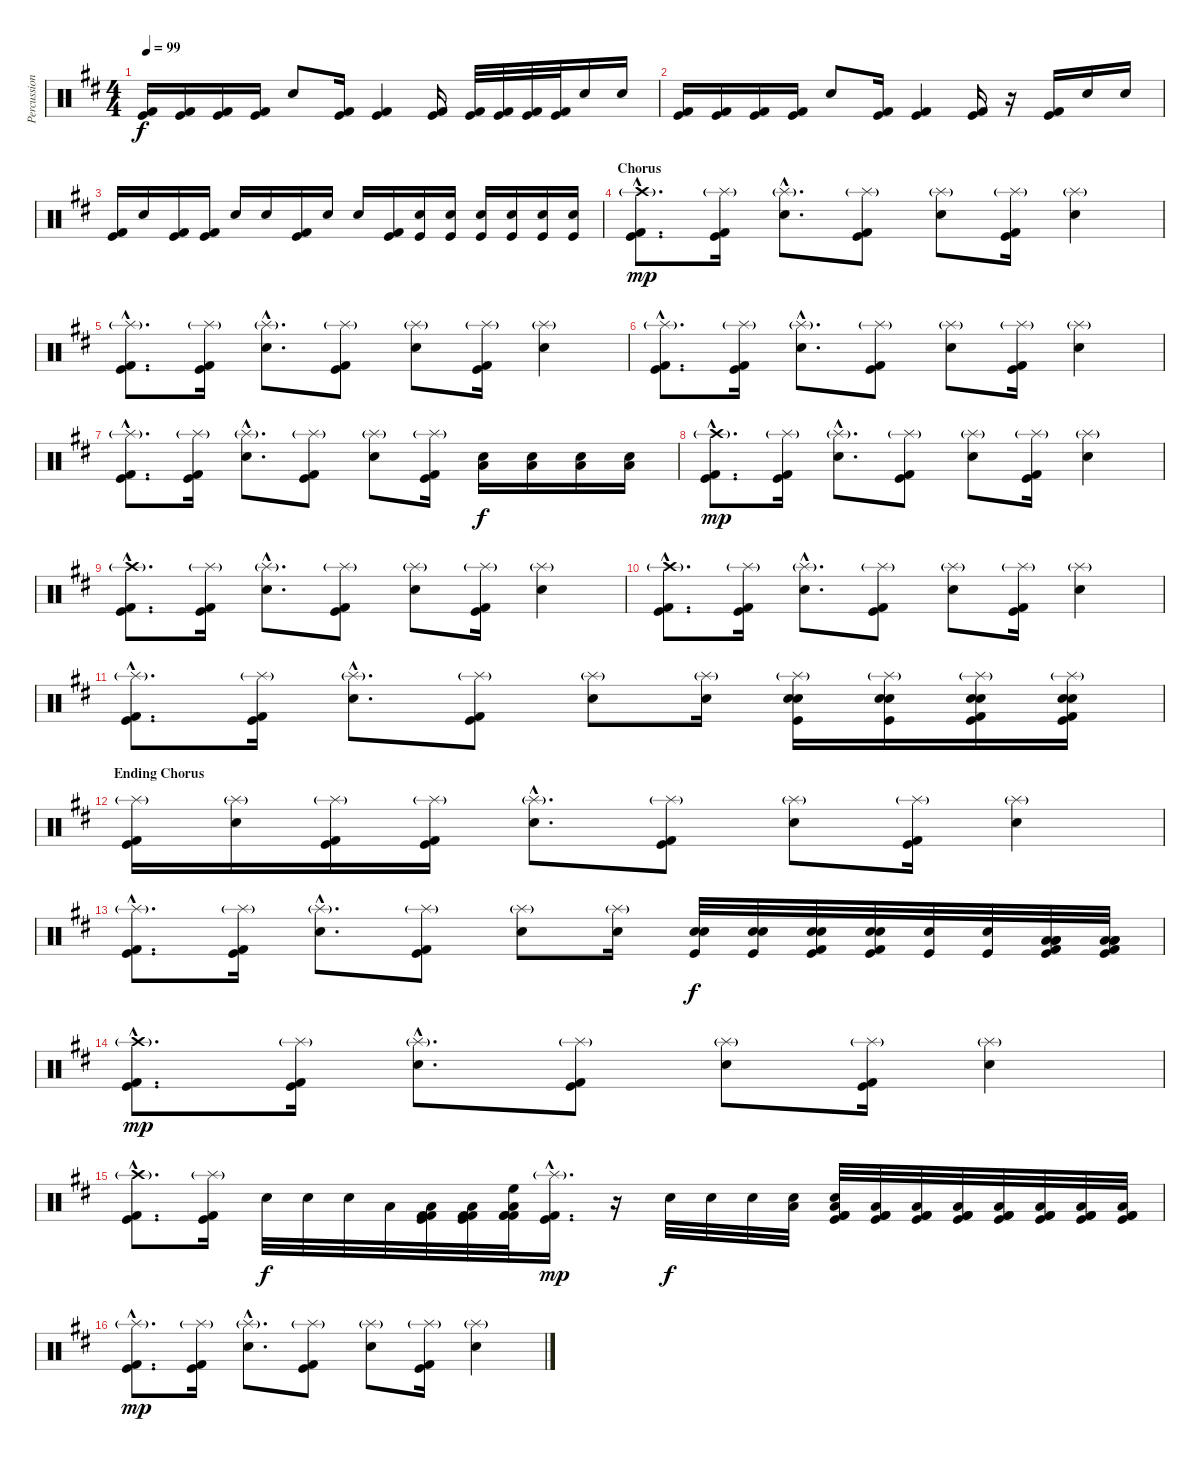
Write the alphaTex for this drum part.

\track ("Percussion" "Percussion") {instrument percussion}
\staff {score}
\articulation defaults
\ts (4 4)
\tempo 99
\clef neutral
\ks d
("Kick (hit)" "Kick (hit) 2").16{dy f} ("Kick (hit)" "Kick (hit) 2").16 ("Kick (hit)" "Kick (hit) 2").16 ("Kick (hit)" "Kick (hit) 2").16 "Electric Snare (hit)".8 ("Kick (hit)" "Kick (hit) 2").16 ("Kick (hit)" "Kick (hit) 2").4 ("Kick (hit)" "Kick (hit) 2").16 ("Kick (hit)" "Kick (hit) 2").32 ("Kick (hit)" "Kick (hit) 2").32 ("Kick (hit)" "Kick (hit) 2").32 ("Kick (hit) 2" "Kick (hit)").32 "Electric Snare (hit)".16 "Electric Snare (hit)".16 |
("Kick (hit)" "Kick (hit) 2").16 ("Kick (hit)" "Kick (hit) 2").16 ("Kick (hit)" "Kick (hit) 2").16 ("Kick (hit)" "Kick (hit) 2").16 "Electric Snare (hit)".8 ("Kick (hit)" "Kick (hit) 2").16 ("Kick (hit)" "Kick (hit) 2").4 ("Kick (hit)" "Kick (hit) 2").16 r.16 ("Kick (hit) 2" "Kick (hit)").16 "Electric Snare (hit)".16 "Electric Snare (hit)".16 |
("Kick (hit)" "Kick (hit) 2").16 "Electric Snare (hit)".16 ("Kick (hit)" "Kick (hit) 2").16 ("Kick (hit)" "Kick (hit) 2").16 "Electric Snare (hit)".16 "Electric Snare (hit)".16 ("Kick (hit)" "Kick (hit) 2").16 "Electric Snare (hit)".16 "Electric Snare (hit)".16 ("Kick (hit)" "Kick (hit) 2").16 ("Electric Snare (hit)" "Kick (hit)").16 ("Electric Snare (hit)" "Kick (hit)").16 ("Electric Snare (hit)" "Kick (hit)").16 ("Electric Snare (hit)" "Kick (hit)").16 ("Electric Snare (hit)" "Kick (hit)").16 ("Electric Snare (hit)" "Kick (hit)").16 |
\section ("" "Chorus")
("Crash high (hit)"{g hac} "Kick (hit)"{hac} "Kick (hit) 2"{hac}).8{d dy mp} ("Splash (hit)"{g} "Kick (hit)" "Kick (hit) 2").16 ("Splash (hit)"{g hac} "Electric Snare (hit)"{hac}).8{d} ("Splash (hit)"{g} "Kick (hit)" "Kick (hit) 2").8 ("Splash (hit)"{g} "Electric Snare (hit)").8 ("Splash (hit)"{g} "Kick (hit)" "Kick (hit) 2").16 ("Splash (hit)"{g} "Electric Snare (hit)").4 |
("Splash (hit)"{g hac} "Kick (hit)"{hac} "Kick (hit) 2"{hac}).8{d} ("Splash (hit)"{g} "Kick (hit)" "Kick (hit) 2").16 ("Splash (hit)"{g hac} "Electric Snare (hit)"{hac}).8{d} ("Splash (hit)"{g} "Kick (hit)" "Kick (hit) 2").8 ("Splash (hit)"{g} "Electric Snare (hit)").8 ("Splash (hit)"{g} "Kick (hit)" "Kick (hit) 2").16 ("Splash (hit)"{g} "Electric Snare (hit)").4 |
("Splash (hit)"{g hac} "Kick (hit)"{hac} "Kick (hit) 2"{hac}).8{d} ("Splash (hit)"{g} "Kick (hit)" "Kick (hit) 2").16 ("Splash (hit)"{g hac} "Electric Snare (hit)"{hac}).8{d} ("Splash (hit)"{g} "Kick (hit)" "Kick (hit) 2").8 ("Splash (hit)"{g} "Electric Snare (hit)").8 ("Splash (hit)"{g} "Kick (hit)" "Kick (hit) 2").16 ("Splash (hit)"{g} "Electric Snare (hit)").4 |
("Splash (hit)"{g hac} "Kick (hit)"{hac} "Kick (hit) 2"{hac}).8{d} ("Splash (hit)"{g} "Kick (hit)" "Kick (hit) 2").16 ("Splash (hit)"{g hac} "Electric Snare (hit)"{hac}).8{d} ("Splash (hit)"{g} "Kick (hit)" "Kick (hit) 2").8 ("Splash (hit)"{g} "Electric Snare (hit)").8 ("Splash (hit)"{g} "Kick (hit)" "Kick (hit) 2").16 ("Low Tom (hit)" "Electric Snare (hit)").16{dy f} ("Low Tom (hit)" "Electric Snare (hit)").16 ("Low Tom (hit)" "Electric Snare (hit)").16 ("Low Tom (hit)" "Electric Snare (hit)").16 |
("Crash high (hit)"{g hac} "Kick (hit)"{hac} "Kick (hit) 2"{hac}).8{d dy mp} ("Splash (hit)"{g} "Kick (hit)" "Kick (hit) 2").16 ("Splash (hit)"{g hac} "Electric Snare (hit)"{hac}).8{d} ("Splash (hit)"{g} "Kick (hit)" "Kick (hit) 2").8 ("Splash (hit)"{g} "Electric Snare (hit)").8 ("Splash (hit)"{g} "Kick (hit)" "Kick (hit) 2").16 ("Splash (hit)"{g} "Electric Snare (hit)").4 |
("Crash high (hit)"{g hac} "Kick (hit)"{hac} "Kick (hit) 2"{hac}).8{d} ("Splash (hit)"{g} "Kick (hit)" "Kick (hit) 2").16 ("Splash (hit)"{g hac} "Electric Snare (hit)"{hac}).8{d} ("Splash (hit)"{g} "Kick (hit)" "Kick (hit) 2").8 ("Splash (hit)"{g} "Electric Snare (hit)").8 ("Splash (hit)"{g} "Kick (hit)" "Kick (hit) 2").16 ("Splash (hit)"{g} "Electric Snare (hit)").4 |
("Crash high (hit)"{g hac} "Kick (hit)"{hac} "Kick (hit) 2"{hac}).8{d} ("Splash (hit)"{g} "Kick (hit)" "Kick (hit) 2").16 ("Splash (hit)"{g hac} "Electric Snare (hit)"{hac}).8{d} ("Splash (hit)"{g} "Kick (hit)" "Kick (hit) 2").8 ("Splash (hit)"{g} "Electric Snare (hit)").8 ("Splash (hit)"{g} "Kick (hit)" "Kick (hit) 2").16 ("Splash (hit)"{g} "Electric Snare (hit)").4 |
("Splash (hit)"{g hac} "Kick (hit)"{hac} "Kick (hit) 2"{hac}).8{d} ("Splash (hit)"{g} "Kick (hit)" "Kick (hit) 2").16 ("Splash (hit)"{g hac} "Electric Snare (hit)"{hac}).8{d} ("Splash (hit)"{g} "Kick (hit)" "Kick (hit) 2").8 ("Splash (hit)"{g} "Electric Snare (hit)").8 ("Splash (hit)"{g} "Electric Snare (hit)").16 ("Splash (hit)"{g} "Electric Snare (hit)" "Electric Snare (hit)" "Kick (hit)").16 ("Splash (hit)"{g} "Electric Snare (hit)" "Electric Snare (hit)" "Kick (hit)").16 ("Splash (hit)"{g} "Electric Snare (hit)" "Electric Snare (hit)" "Kick (hit) 2" "Kick (hit)").16 ("Splash (hit)"{g} "Electric Snare (hit)" "Electric Snare (hit)" "Kick (hit) 2" "Kick (hit)").16 |
\section ("" "Ending Chorus")
("Splash (hit)"{g} "Kick (hit)" "Kick (hit) 2").16 ("Splash (hit)"{g} "Electric Snare (hit)").16 ("Splash (hit)"{g} "Kick (hit)" "Kick (hit) 2").16 ("Splash (hit)"{g} "Kick (hit)" "Kick (hit) 2").16 ("Splash (hit)"{g hac} "Electric Snare (hit)"{hac}).8{d} ("Splash (hit)"{g} "Kick (hit)" "Kick (hit) 2").8 ("Splash (hit)"{g} "Electric Snare (hit)").8 ("Splash (hit)"{g} "Kick (hit)" "Kick (hit) 2").16 ("Splash (hit)"{g} "Electric Snare (hit)").4 |
("Splash (hit)"{g hac} "Kick (hit)"{hac} "Kick (hit) 2"{hac}).8{d} ("Splash (hit)"{g} "Kick (hit)" "Kick (hit) 2").16 ("Splash (hit)"{g hac} "Electric Snare (hit)"{hac}).8{d} ("Splash (hit)"{g} "Kick (hit)" "Kick (hit) 2").8 ("Splash (hit)"{g} "Electric Snare (hit)").8 ("Splash (hit)"{g} "Electric Snare (hit)").16 ("Electric Snare (hit)" "Electric Snare (hit)" "Kick (hit)").32{dy f} ("Electric Snare (hit)" "Electric Snare (hit)" "Kick (hit)").32 ("Electric Snare (hit)" "Electric Snare (hit)" "Kick (hit) 2" "Kick (hit)").32 ("Electric Snare (hit)" "Electric Snare (hit)" "Kick (hit) 2" "Kick (hit)").32 ("Electric Snare (hit)" "Kick (hit)").32 ("Electric Snare (hit)" "Kick (hit)").32 ("Low Tom (hit)" "Low Tom (hit)" "Low Tom (hit)" "Kick (hit) 2" "Kick (hit)").32 ("Low Tom (hit)" "Low Tom (hit)" "Low Tom (hit)" "Kick (hit) 2" "Kick (hit)").32 |
("Crash high (hit)"{g hac} "Kick (hit)"{hac} "Kick (hit) 2"{hac}).8{d dy mp} ("Splash (hit)"{g} "Kick (hit)" "Kick (hit) 2").16 ("Splash (hit)"{g hac} "Electric Snare (hit)"{hac}).8{d} ("Splash (hit)"{g} "Kick (hit)" "Kick (hit) 2").8 ("Splash (hit)"{g} "Electric Snare (hit)").8 ("Splash (hit)"{g} "Kick (hit)" "Kick (hit) 2").16 ("Splash (hit)"{g} "Electric Snare (hit)").4 |
("Crash high (hit)"{g hac} "Kick (hit)"{hac} "Kick (hit) 2"{hac}).8{d} ("Splash (hit)"{g} "Kick (hit)" "Kick (hit) 2").16 "Electric Snare (hit)".32{dy f} "Electric Snare (hit)".32 "Electric Snare (hit)".32 "Low Tom (hit)".32 ("Low Tom (hit)" "Kick (hit)" "Kick (hit) 2" "Kick (hit) 2").32 ("Low Tom (hit)" "Kick (hit)" "Kick (hit) 2" "Kick (hit) 2").32 ("Low Tom (hit)" "High Floor Tom (hit)" "Kick (hit) 2" "Kick (hit) 2" "Kick (hit) 2").32 ("Splash (hit)"{g hac} "Kick (hit)"{hac} "Kick (hit) 2"{hac}).16{d dy mp} r.16 "Electric Snare (hit)".32{dy f} "Electric Snare (hit)".32 "Electric Snare (hit)".32 ("Low Tom (hit)" "Electric Snare (hit)").32 ("Low Tom (hit)" "Electric Snare (hit)" "Kick (hit)" "Kick (hit) 2" "Kick (hit) 2").32 ("Low Tom (hit)" "Kick (hit)" "Kick (hit) 2" "Kick (hit) 2").32 ("Low Tom (hit)" "Kick (hit)" "Kick (hit) 2" "Kick (hit) 2").32 ("Low Tom (hit)" "Kick (hit)" "Kick (hit) 2" "Kick (hit) 2").32 ("Low Tom (hit)" "Kick (hit)" "Kick (hit) 2" "Kick (hit) 2").32 ("Low Tom (hit)" "Kick (hit)" "Kick (hit) 2" "Kick (hit) 2").32 ("Low Tom (hit)" "Kick (hit)" "Kick (hit) 2" "Kick (hit) 2").32 ("Low Tom (hit)" "Kick (hit)" "Kick (hit) 2" "Kick (hit) 2").32 |
("Splash (hit)"{g hac} "Kick (hit)"{hac} "Kick (hit) 2"{hac}).8{d dy mp} ("Splash (hit)"{g} "Kick (hit)" "Kick (hit) 2").16 ("Splash (hit)"{g hac} "Electric Snare (hit)"{hac}).8{d} ("Splash (hit)"{g} "Kick (hit)" "Kick (hit) 2").8 ("Splash (hit)"{g} "Electric Snare (hit)").8 ("Splash (hit)"{g} "Kick (hit)" "Kick (hit) 2").16 ("Splash (hit)"{g} "Electric Snare (hit)").4
